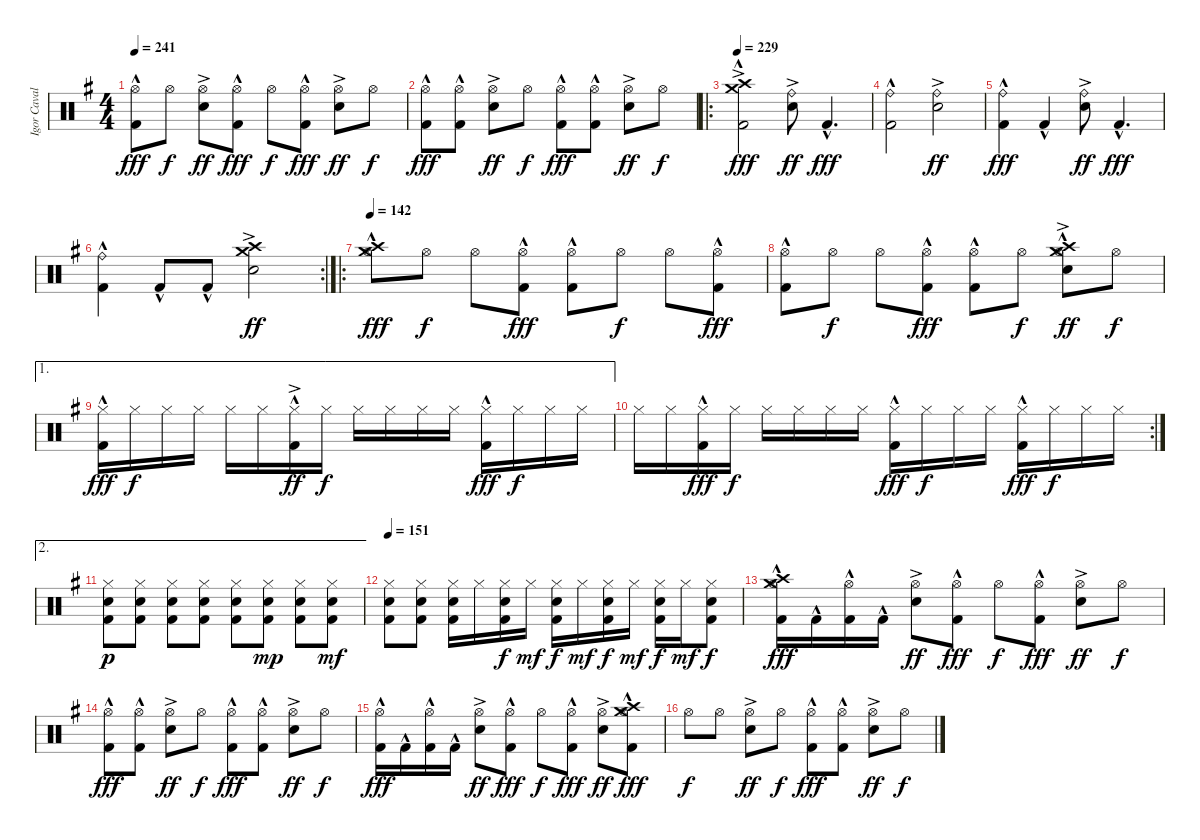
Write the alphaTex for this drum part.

\track ("Igor Cavalera" "Igor Caval") {instrument percussion}
\staff {score}
\articulation defaults
\ts (4 4)
\tempo 241
\clef neutral
\ks g
("Hi-Hat (open)" "Kick (hit) 2"{hac}).8{dy fff} "Hi-Hat (open)".8{dy f} ("Snare (hit) 2"{ac} "Hi-Hat (open)").8{dy ff} ("Hi-Hat (open)" "Kick (hit) 2"{hac}).8{dy fff} "Hi-Hat (open)".8{dy f} ("Hi-Hat (open)" "Kick (hit) 2"{hac}).8{dy fff} ("Snare (hit) 2"{ac} "Hi-Hat (open)").8{dy ff} "Hi-Hat (open)".8{dy f} |
("Hi-Hat (open)" "Kick (hit) 2"{hac}).8{dy fff} ("Hi-Hat (open)" "Kick (hit) 2"{hac}).8 ("Snare (hit) 2"{ac} "Hi-Hat (open)").8{dy ff} "Hi-Hat (open)".8{dy f} ("Hi-Hat (open)" "Kick (hit) 2"{hac}).8{dy fff} ("Hi-Hat (open)" "Kick (hit) 2"{hac}).8 ("Snare (hit) 2"{ac} "Hi-Hat (open)").8{dy ff} "Hi-Hat (open)".8{dy f} |
\ro
\tempo 229
("Crash medium (hit)" "Crash high (hit)"{ac} "Kick (hit) 2"{hac}).2{dy fff} ("Snare (hit) 2"{ac} "Ride (bell)").8{dy ff} "Kick (hit) 2"{hac}.4{d dy fff} |
("Ride (bell)" "Kick (hit) 2"{hac}).2 ("Snare (hit) 2"{ac} "Ride (bell)").2{dy ff} |
("Ride (bell)" "Kick (hit) 2"{hac}).4{dy fff} "Kick (hit) 2"{hac}.4 ("Snare (hit) 2"{ac} "Ride (bell)").8{dy ff} "Kick (hit) 2"{hac}.4{d dy fff} |
\rc 2
("Ride (bell)" "Kick (hit) 2"{hac}).4 "Kick (hit) 2"{hac}.8 "Kick (hit) 2"{hac}.8 ("Crash medium (hit)"{ac} "Crash high (hit)" "Snare (hit) 2"{ac}).2{dy ff} |
\ro
\tempo 142
("Crash high (hit)"{hac} "Crash medium (hit)"{hac} "Hi-Hat (open)").8{dy fff} "Hi-Hat (open)".8{dy f} "Hi-Hat (open)".8 ("Hi-Hat (open)" "Kick (hit) 2"{hac}).8{dy fff} ("Hi-Hat (open)" "Kick (hit) 2"{hac}).8 "Hi-Hat (open)".8{dy f} "Hi-Hat (open)".8 ("Hi-Hat (open)" "Kick (hit) 2"{hac}).8{dy fff} |
("Hi-Hat (open)" "Kick (hit) 2"{hac}).8 "Hi-Hat (open)".8{dy f} "Hi-Hat (open)".8 ("Hi-Hat (open)" "Kick (hit) 2"{hac}).8{dy fff} ("Hi-Hat (open)" "Kick (hit) 2"{hac}).8 "Hi-Hat (open)".8{dy f} ("Crash medium (hit)"{hac} "Crash high (hit)" "Snare (hit) 2"{ac} "Hi-Hat (open)").8{dy ff} "Hi-Hat (open)".8{dy f} |
\ae 1
("Hi-Hat (closed)"{hac} "Kick (hit) 2"{hac}).16{dy fff} "Hi-Hat (closed)".16{dy f} "Hi-Hat (closed)".16 "Hi-Hat (closed)".16 "Hi-Hat (closed)".16 "Hi-Hat (closed)".16 ("Hi-Hat (closed)"{hac} "Kick (hit) 2"{ac}).16{dy ff} "Hi-Hat (closed)".16{dy f} "Hi-Hat (closed)".16 "Hi-Hat (closed)".16 "Hi-Hat (closed)".16 "Hi-Hat (closed)".16 ("Hi-Hat (closed)"{hac} "Kick (hit) 2"{hac}).16{dy fff} "Hi-Hat (closed)".16{dy f} "Hi-Hat (closed)".16 "Hi-Hat (closed)".16 |
\rc 2 "Hi-Hat (closed)".16 "Hi-Hat (closed)".16
("Hi-Hat (closed)"{hac} "Kick (hit) 2"{hac}).16{dy fff} "Hi-Hat (closed)".16{dy f} "Hi-Hat (closed)".16 "Hi-Hat (closed)".16 "Hi-Hat (closed)".16 "Hi-Hat (closed)".16 ("Hi-Hat (closed)"{hac} "Kick (hit) 2"{hac}).16{dy fff} "Hi-Hat (closed)".16{dy f} "Hi-Hat (closed)".16 "Hi-Hat (closed)".16 ("Hi-Hat (closed)" "Kick (hit) 2"{hac}).16{dy fff} "Hi-Hat (closed)".16{dy f} "Hi-Hat (closed)".16 "Hi-Hat (closed)".16 |
\ae 2
("Snare (hit) 2" "Hi-Hat (closed)" "Kick (hit) 2").8{dy p} ("Snare (hit) 2" "Hi-Hat (closed)" "Kick (hit) 2").8 ("Snare (hit) 2" "Hi-Hat (closed)" "Kick (hit) 2").8 ("Snare (hit) 2" "Hi-Hat (closed)" "Kick (hit) 2").8 ("Snare (hit) 2" "Hi-Hat (closed)" "Kick (hit) 2").8 ("Snare (hit) 2" "Hi-Hat (closed)" "Kick (hit) 2").8{dy mp} ("Snare (hit) 2" "Hi-Hat (closed)" "Kick (hit) 2").8 ("Snare (hit) 2" "Hi-Hat (closed)" "Kick (hit) 2").8{dy mf} |
\tempo 151
("Snare (hit) 2" "Hi-Hat (closed)" "Kick (hit) 2").8 ("Snare (hit) 2" "Hi-Hat (closed)" "Kick (hit) 2").8 ("Snare (hit) 2" "Hi-Hat (closed)" "Kick (hit) 2").16 "Hi-Hat (closed)".16 ("Snare (hit) 2" "Hi-Hat (closed)" "Kick (hit) 2").16{dy f} "Hi-Hat (closed)".16{dy mf} ("Snare (hit) 2" "Hi-Hat (closed)" "Kick (hit) 2").16{dy f} "Hi-Hat (closed)".16{dy mf} ("Snare (hit) 2" "Hi-Hat (closed)" "Kick (hit) 2").16{dy f} "Hi-Hat (closed)".16{dy mf} ("Snare (hit) 2" "Hi-Hat (closed)" "Kick (hit) 2").16{dy f} "Hi-Hat (closed)".16{dy mf} ("Snare (hit) 2" "Hi-Hat (closed)" "Kick (hit) 2").8{dy f} |
("Crash medium (hit)"{hac} "Crash high (hit)" "Hi-Hat (open)" "Kick (hit) 2"{hac}).16{dy fff} "Kick (hit) 2"{hac}.16 ("Hi-Hat (open)" "Kick (hit) 2"{hac}).16 "Kick (hit) 2"{hac}.16 ("Snare (hit) 2"{ac} "Hi-Hat (open)").8{dy ff} ("Hi-Hat (open)" "Kick (hit) 2"{hac}).8{dy fff} "Hi-Hat (open)".8{dy f} ("Hi-Hat (open)" "Kick (hit) 2"{hac}).8{dy fff} ("Snare (hit) 2"{ac} "Hi-Hat (open)").8{dy ff} "Hi-Hat (open)".8{dy f} |
("Hi-Hat (open)" "Kick (hit) 2"{hac}).8{dy fff} ("Hi-Hat (open)" "Kick (hit) 2"{hac}).8 ("Snare (hit) 2"{ac} "Hi-Hat (open)").8{dy ff} "Hi-Hat (open)".8{dy f} ("Hi-Hat (open)" "Kick (hit) 2"{hac}).8{dy fff} ("Hi-Hat (open)" "Kick (hit) 2"{hac}).8 ("Snare (hit) 2"{ac} "Hi-Hat (open)").8{dy ff} "Hi-Hat (open)".8{dy f} |
("Hi-Hat (open)" "Kick (hit) 2"{hac}).16{dy fff} "Kick (hit) 2"{hac}.16 ("Hi-Hat (open)" "Kick (hit) 2"{hac}).16 "Kick (hit) 2"{hac}.16 ("Snare (hit) 2"{ac} "Hi-Hat (open)").8{dy ff} ("Hi-Hat (open)" "Kick (hit) 2"{hac}).8{dy fff} "Hi-Hat (open)".8{dy f} ("Hi-Hat (open)" "Kick (hit) 2"{hac}).8{dy fff} ("Snare (hit) 2"{ac} "Hi-Hat (open)").8{dy ff} ("Crash high (hit)"{hac} "Crash medium (hit)" "Hi-Hat (open)" "Kick (hit) 2"{hac}).8{dy fff} |
"Hi-Hat (open)".8{dy f} "Hi-Hat (open)".8 ("Snare (hit) 2"{ac} "Hi-Hat (open)").8{dy ff} "Hi-Hat (open)".8{dy f} ("Hi-Hat (open)" "Kick (hit) 2"{hac}).8{dy fff} ("Hi-Hat (open)" "Kick (hit) 2"{hac}).8 ("Snare (hit) 2"{ac} "Hi-Hat (open)").8{dy ff} "Hi-Hat (open)".8{dy f}
